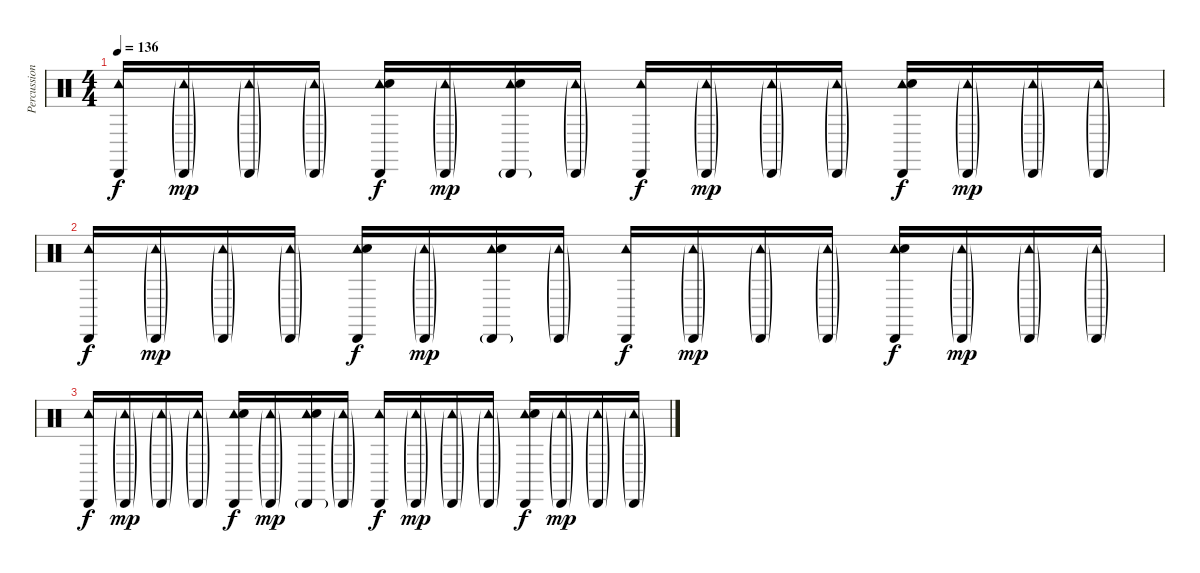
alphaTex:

\track ("Percussion (2)" "Percussion") {instrument percussion}
\staff {score}
\articulation defaults
\ts (4 4)
\tempo 136
\clef neutral
\ks c
("Cabasa (hit)" "Tambourine (hit)").16{dy f} ("Cabasa (hit)"{g} "Tambourine (hit)"{g}).16{dy mp} ("Cabasa (hit)"{g} "Tambourine (hit)"{g}).16 ("Cabasa (hit)"{g} "Tambourine (hit)"{g}).16 ("Cabasa (hit)" "Tambourine (hit)" "Hand Clap (hit)").16{dy f} ("Cabasa (hit)"{g} "Tambourine (hit)"{g}).16{dy mp} ("Cabasa (hit)"{g} "Tambourine (hit)" "Hand Clap (hit)").16 ("Cabasa (hit)"{g} "Tambourine (hit)"{g}).16 ("Cabasa (hit)" "Tambourine (hit)").16{dy f} ("Cabasa (hit)"{g} "Tambourine (hit)"{g}).16{dy mp} ("Cabasa (hit)"{g} "Tambourine (hit)"{g}).16 ("Cabasa (hit)"{g} "Tambourine (hit)"{g}).16 ("Cabasa (hit)" "Tambourine (hit)" "Hand Clap (hit)").16{dy f} ("Cabasa (hit)"{g} "Tambourine (hit)"{g}).16{dy mp} ("Cabasa (hit)"{g} "Tambourine (hit)"{g}).16 ("Cabasa (hit)"{g} "Tambourine (hit)"{g}).16 |
("Cabasa (hit)" "Tambourine (hit)").16{dy f} ("Cabasa (hit)"{g} "Tambourine (hit)"{g}).16{dy mp} ("Cabasa (hit)"{g} "Tambourine (hit)"{g}).16 ("Cabasa (hit)"{g} "Tambourine (hit)"{g}).16 ("Cabasa (hit)" "Tambourine (hit)" "Hand Clap (hit)").16{dy f} ("Cabasa (hit)"{g} "Tambourine (hit)"{g}).16{dy mp} ("Cabasa (hit)"{g} "Tambourine (hit)" "Hand Clap (hit)").16 ("Cabasa (hit)"{g} "Tambourine (hit)"{g}).16 ("Cabasa (hit)" "Tambourine (hit)").16{dy f} ("Cabasa (hit)"{g} "Tambourine (hit)"{g}).16{dy mp} ("Cabasa (hit)"{g} "Tambourine (hit)"{g}).16 ("Cabasa (hit)"{g} "Tambourine (hit)"{g}).16 ("Cabasa (hit)" "Tambourine (hit)" "Hand Clap (hit)").16{dy f} ("Cabasa (hit)"{g} "Tambourine (hit)"{g}).16{dy mp} ("Cabasa (hit)"{g} "Tambourine (hit)"{g}).16 ("Cabasa (hit)"{g} "Tambourine (hit)"{g}).16 |
("Cabasa (hit)" "Tambourine (hit)").16{dy f} ("Cabasa (hit)"{g} "Tambourine (hit)"{g}).16{dy mp} ("Cabasa (hit)"{g} "Tambourine (hit)"{g}).16 ("Cabasa (hit)"{g} "Tambourine (hit)"{g}).16 ("Cabasa (hit)" "Tambourine (hit)" "Hand Clap (hit)").16{dy f} ("Cabasa (hit)"{g} "Tambourine (hit)"{g}).16{dy mp} ("Cabasa (hit)"{g} "Tambourine (hit)" "Hand Clap (hit)").16 ("Cabasa (hit)"{g} "Tambourine (hit)"{g}).16 ("Cabasa (hit)" "Tambourine (hit)").16{dy f} ("Cabasa (hit)"{g} "Tambourine (hit)"{g}).16{dy mp} ("Cabasa (hit)"{g} "Tambourine (hit)"{g}).16 ("Cabasa (hit)"{g} "Tambourine (hit)"{g}).16 ("Cabasa (hit)" "Tambourine (hit)" "Hand Clap (hit)").16{dy f} ("Cabasa (hit)"{g} "Tambourine (hit)"{g}).16{dy mp} ("Cabasa (hit)"{g} "Tambourine (hit)"{g}).16 ("Cabasa (hit)"{g} "Tambourine (hit)"{g}).16
